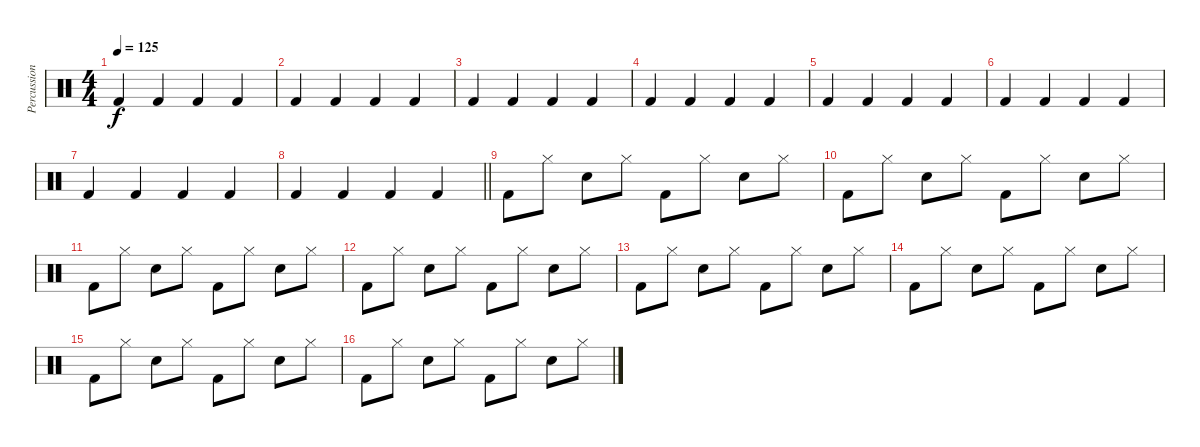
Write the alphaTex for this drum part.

\track ("Percussion" "Percussion") {instrument percussion}
\staff {score}
\articulation defaults
\ts (4 4)
\tempo 125
\clef neutral
\ks c "Kick (hit) 2".4{dy f} "Kick (hit) 2".4 "Kick (hit) 2".4 "Kick (hit) 2".4
|
"Kick (hit) 2".4 "Kick (hit) 2".4 "Kick (hit) 2".4 "Kick (hit) 2".4 |
"Kick (hit) 2".4 "Kick (hit) 2".4 "Kick (hit) 2".4 "Kick (hit) 2".4 |
"Kick (hit) 2".4 "Kick (hit) 2".4 "Kick (hit) 2".4 "Kick (hit) 2".4 |
"Kick (hit) 2".4 "Kick (hit) 2".4 "Kick (hit) 2".4 "Kick (hit) 2".4 |
"Kick (hit) 2".4 "Kick (hit) 2".4 "Kick (hit) 2".4 "Kick (hit) 2".4 |
"Kick (hit) 2".4 "Kick (hit) 2".4 "Kick (hit) 2".4 "Kick (hit) 2".4 |
\barLineRight lightlight "Kick (hit) 2".4 "Kick (hit) 2".4 "Kick (hit) 2".4 "Kick (hit) 2".4
|
"Kick (hit) 2".8 "Hi-Hat (closed)".8 "Electric Snare (hit)".8 "Hi-Hat (closed)".8 "Kick (hit) 2".8 "Hi-Hat (closed)".8 "Electric Snare (hit)".8 "Hi-Hat (closed)".8 |
"Kick (hit) 2".8 "Hi-Hat (closed)".8 "Electric Snare (hit)".8 "Hi-Hat (closed)".8 "Kick (hit) 2".8 "Hi-Hat (closed)".8 "Electric Snare (hit)".8 "Hi-Hat (closed)".8 |
"Kick (hit) 2".8 "Hi-Hat (closed)".8 "Electric Snare (hit)".8 "Hi-Hat (closed)".8 "Kick (hit) 2".8 "Hi-Hat (closed)".8 "Electric Snare (hit)".8 "Hi-Hat (closed)".8 |
"Kick (hit) 2".8 "Hi-Hat (closed)".8 "Electric Snare (hit)".8 "Hi-Hat (closed)".8 "Kick (hit) 2".8 "Hi-Hat (closed)".8 "Electric Snare (hit)".8 "Hi-Hat (closed)".8 |
"Kick (hit) 2".8 "Hi-Hat (closed)".8 "Electric Snare (hit)".8 "Hi-Hat (closed)".8 "Kick (hit) 2".8 "Hi-Hat (closed)".8 "Electric Snare (hit)".8 "Hi-Hat (closed)".8 |
"Kick (hit) 2".8 "Hi-Hat (closed)".8 "Electric Snare (hit)".8 "Hi-Hat (closed)".8 "Kick (hit) 2".8 "Hi-Hat (closed)".8 "Electric Snare (hit)".8 "Hi-Hat (closed)".8 |
"Kick (hit) 2".8 "Hi-Hat (closed)".8 "Electric Snare (hit)".8 "Hi-Hat (closed)".8 "Kick (hit) 2".8 "Hi-Hat (closed)".8 "Electric Snare (hit)".8 "Hi-Hat (closed)".8 |
"Kick (hit) 2".8 "Hi-Hat (closed)".8 "Electric Snare (hit)".8 "Hi-Hat (closed)".8 "Kick (hit) 2".8 "Hi-Hat (closed)".8 "Electric Snare (hit)".8 "Hi-Hat (closed)".8
